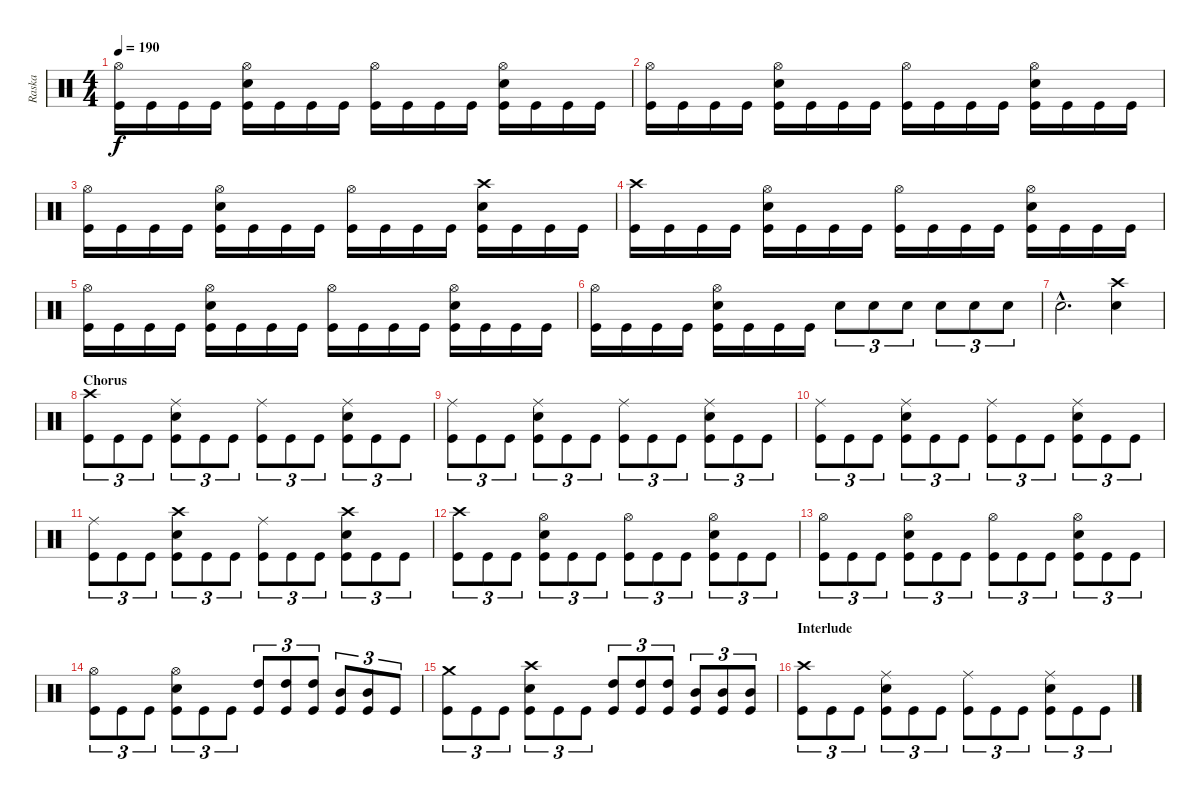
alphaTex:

\track ("Raska" "Raska") {instrument percussion}
\staff {score}
\articulation defaults
\ts (4 4)
\tempo 190
\clef neutral
\ks c
("Hi-Hat (open)" "Kick (hit)").16{dy f} "Kick (hit)".16 "Kick (hit)".16 "Kick (hit)".16 ("Hi-Hat (open)" "Electric Snare (hit)" "Kick (hit)").16 "Kick (hit)".16 "Kick (hit)".16 "Kick (hit)".16 ("Hi-Hat (open)" "Kick (hit)").16 "Kick (hit)".16 "Kick (hit)".16 "Kick (hit)".16 ("Hi-Hat (open)" "Electric Snare (hit)" "Kick (hit)").16 "Kick (hit)".16 "Kick (hit)".16 "Kick (hit)".16 |
("Hi-Hat (open)" "Kick (hit)").16 "Kick (hit)".16 "Kick (hit)".16 "Kick (hit)".16 ("Hi-Hat (open)" "Electric Snare (hit)" "Kick (hit)").16 "Kick (hit)".16 "Kick (hit)".16 "Kick (hit)".16 ("Hi-Hat (open)" "Kick (hit)").16 "Kick (hit)".16 "Kick (hit)".16 "Kick (hit)".16 ("Hi-Hat (open)" "Electric Snare (hit)" "Kick (hit)").16 "Kick (hit)".16 "Kick (hit)".16 "Kick (hit)".16 |
("Hi-Hat (open)" "Kick (hit)").16 "Kick (hit)".16 "Kick (hit)".16 "Kick (hit)".16 ("Hi-Hat (open)" "Electric Snare (hit)" "Kick (hit)").16 "Kick (hit)".16 "Kick (hit)".16 "Kick (hit)".16 ("Hi-Hat (open)" "Kick (hit)").16 "Kick (hit)".16 "Kick (hit)".16 "Kick (hit)".16 ("Crash high (hit)" "Electric Snare (hit)" "Kick (hit)").16 "Kick (hit)".16 "Kick (hit)".16 "Kick (hit)".16 |
("Crash high (hit)" "Kick (hit)").16 "Kick (hit)".16 "Kick (hit)".16 "Kick (hit)".16 ("Hi-Hat (open)" "Electric Snare (hit)" "Kick (hit)").16 "Kick (hit)".16 "Kick (hit)".16 "Kick (hit)".16 ("Hi-Hat (open)" "Kick (hit)").16 "Kick (hit)".16 "Kick (hit)".16 "Kick (hit)".16 ("Hi-Hat (open)" "Electric Snare (hit)" "Kick (hit)").16 "Kick (hit)".16 "Kick (hit)".16 "Kick (hit)".16 |
("Hi-Hat (open)" "Kick (hit)").16 "Kick (hit)".16 "Kick (hit)".16 "Kick (hit)".16 ("Hi-Hat (open)" "Electric Snare (hit)" "Kick (hit)").16 "Kick (hit)".16 "Kick (hit)".16 "Kick (hit)".16 ("Hi-Hat (open)" "Kick (hit)").16 "Kick (hit)".16 "Kick (hit)".16 "Kick (hit)".16 ("Hi-Hat (open)" "Electric Snare (hit)" "Kick (hit)").16 "Kick (hit)".16 "Kick (hit)".16 "Kick (hit)".16 |
("Hi-Hat (open)" "Kick (hit)").16 "Kick (hit)".16 "Kick (hit)".16 "Kick (hit)".16 ("Hi-Hat (open)" "Electric Snare (hit)" "Kick (hit)").16 "Kick (hit)".16 "Kick (hit)".16 "Kick (hit)".16 "Electric Snare (hit)".8{tu (3 2)} "Electric Snare (hit)".8{tu (3 2)} "Electric Snare (hit)".8{tu (3 2)} "Electric Snare (hit)".8{tu (3 2)} "Electric Snare (hit)".8{tu (3 2)} "Electric Snare (hit)".8{tu (3 2)} |
"Electric Snare (hit)"{hac}.2{d} ("Crash high (hit)" "Electric Snare (hit)").4 |
\section ("" "Chorus")
("Crash high (hit)" "Kick (hit)").8{tu (3 2)} "Kick (hit)".8{tu (3 2)} "Kick (hit)".8{tu (3 2)} ("Ride (middle)" "Electric Snare (hit)" "Kick (hit)").8{tu (3 2)} "Kick (hit)".8{tu (3 2)} "Kick (hit)".8{tu (3 2)} ("Ride (middle)" "Kick (hit)").8{tu (3 2)} "Kick (hit)".8{tu (3 2)} "Kick (hit)".8{tu (3 2)} ("Ride (middle)" "Electric Snare (hit)" "Kick (hit)").8{tu (3 2)} "Kick (hit)".8{tu (3 2)} "Kick (hit)".8{tu (3 2)} |
("Ride (middle)" "Kick (hit)").8{tu (3 2)} "Kick (hit)".8{tu (3 2)} "Kick (hit)".8{tu (3 2)} ("Ride (middle)" "Electric Snare (hit)" "Kick (hit)").8{tu (3 2)} "Kick (hit)".8{tu (3 2)} "Kick (hit)".8{tu (3 2)} ("Ride (middle)" "Kick (hit)").8{tu (3 2)} "Kick (hit)".8{tu (3 2)} "Kick (hit)".8{tu (3 2)} ("Ride (middle)" "Electric Snare (hit)" "Kick (hit)").8{tu (3 2)} "Kick (hit)".8{tu (3 2)} "Kick (hit)".8{tu (3 2)} |
("Ride (middle)" "Kick (hit)").8{tu (3 2)} "Kick (hit)".8{tu (3 2)} "Kick (hit)".8{tu (3 2)} ("Ride (middle)" "Electric Snare (hit)" "Kick (hit)").8{tu (3 2)} "Kick (hit)".8{tu (3 2)} "Kick (hit)".8{tu (3 2)} ("Ride (middle)" "Kick (hit)").8{tu (3 2)} "Kick (hit)".8{tu (3 2)} "Kick (hit)".8{tu (3 2)} ("Ride (middle)" "Electric Snare (hit)" "Kick (hit)").8{tu (3 2)} "Kick (hit)".8{tu (3 2)} "Kick (hit)".8{tu (3 2)} |
("Ride (middle)" "Kick (hit)").8{tu (3 2)} "Kick (hit)".8{tu (3 2)} "Kick (hit)".8{tu (3 2)} ("Crash high (hit)" "Electric Snare (hit)" "Kick (hit)").8{tu (3 2)} "Kick (hit)".8{tu (3 2)} "Kick (hit)".8{tu (3 2)} ("Ride (middle)" "Kick (hit)").8{tu (3 2)} "Kick (hit)".8{tu (3 2)} "Kick (hit)".8{tu (3 2)} ("Crash high (hit)" "Electric Snare (hit)" "Kick (hit)").8{tu (3 2)} "Kick (hit)".8{tu (3 2)} "Kick (hit)".8{tu (3 2)} |
("Crash high (hit)" "Kick (hit)").8{tu (3 2)} "Kick (hit)".8{tu (3 2)} "Kick (hit)".8{tu (3 2)} ("Hi-Hat (open)" "Electric Snare (hit)" "Kick (hit)").8{tu (3 2)} "Kick (hit)".8{tu (3 2)} "Kick (hit)".8{tu (3 2)} ("Hi-Hat (open)" "Kick (hit)").8{tu (3 2)} "Kick (hit)".8{tu (3 2)} "Kick (hit)".8{tu (3 2)} ("Hi-Hat (open)" "Electric Snare (hit)" "Kick (hit)").8{tu (3 2)} "Kick (hit)".8{tu (3 2)} "Kick (hit)".8{tu (3 2)} |
("Hi-Hat (open)" "Kick (hit)").8{tu (3 2)} "Kick (hit)".8{tu (3 2)} "Kick (hit)".8{tu (3 2)} ("Hi-Hat (open)" "Electric Snare (hit)" "Kick (hit)").8{tu (3 2)} "Kick (hit)".8{tu (3 2)} "Kick (hit)".8{tu (3 2)} ("Hi-Hat (open)" "Kick (hit)").8{tu (3 2)} "Kick (hit)".8{tu (3 2)} "Kick (hit)".8{tu (3 2)} ("Hi-Hat (open)" "Electric Snare (hit)" "Kick (hit)").8{tu (3 2)} "Kick (hit)".8{tu (3 2)} "Kick (hit)".8{tu (3 2)} |
("Hi-Hat (open)" "Kick (hit)").8{tu (3 2)} "Kick (hit)".8{tu (3 2)} "Kick (hit)".8{tu (3 2)} ("Hi-Hat (open)" "Electric Snare (hit)" "Kick (hit)").8{tu (3 2)} "Kick (hit)".8{tu (3 2)} "Kick (hit)".8{tu (3 2)} ("High Tom (hit)" "Kick (hit)").8{tu (3 2)} ("High Tom (hit)" "Kick (hit)").8{tu (3 2)} ("High Tom (hit)" "Kick (hit)").8{tu (3 2)} ("Mid Tom (hit)" "Kick (hit)").8{tu (3 2)} ("Mid Tom (hit)" "Kick (hit)").8{tu (3 2)} "Kick (hit)".8{tu (3 2)} |
("Crash medium (hit)" "Kick (hit)").8{tu (3 2)} "Kick (hit)".8{tu (3 2)} "Kick (hit)".8{tu (3 2)} ("Crash high (hit)" "Electric Snare (hit)" "Kick (hit)").8{tu (3 2)} "Kick (hit)".8{tu (3 2)} "Kick (hit)".8{tu (3 2)} ("High Tom (hit)" "Kick (hit)").8{tu (3 2)} ("High Tom (hit)" "Kick (hit)").8{tu (3 2)} ("High Tom (hit)" "Kick (hit)").8{tu (3 2)} ("Mid Tom (hit)" "Kick (hit)").8{tu (3 2)} ("Mid Tom (hit)" "Kick (hit)").8{tu (3 2)} ("Mid Tom (hit)" "Kick (hit)").8{tu (3 2)} |
\section ("" "Interlude")
("Crash high (hit)" "Kick (hit)").8{tu (3 2)} "Kick (hit)".8{tu (3 2)} "Kick (hit)".8{tu (3 2)} ("Ride (middle)" "Electric Snare (hit)" "Kick (hit)").8{tu (3 2)} "Kick (hit)".8{tu (3 2)} "Kick (hit)".8{tu (3 2)} ("Ride (middle)" "Kick (hit)").8{tu (3 2)} "Kick (hit)".8{tu (3 2)} "Kick (hit)".8{tu (3 2)} ("Ride (middle)" "Electric Snare (hit)" "Kick (hit)").8{tu (3 2)} "Kick (hit)".8{tu (3 2)} "Kick (hit)".8{tu (3 2)}
